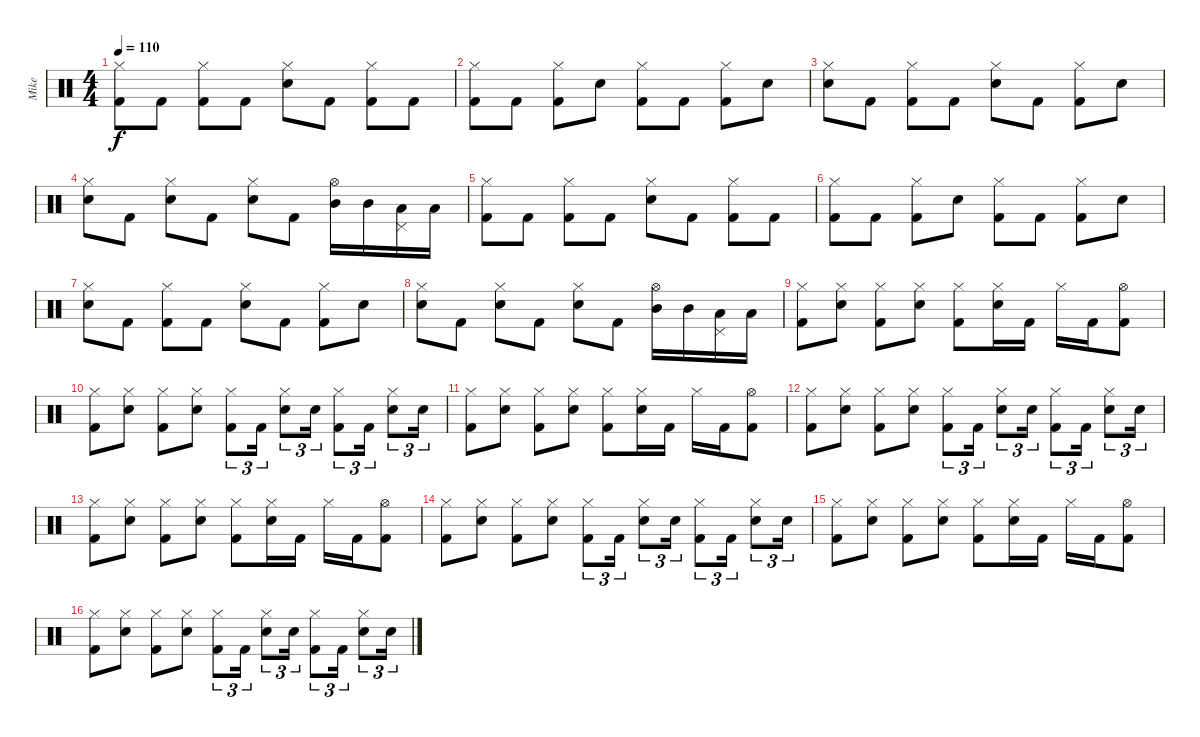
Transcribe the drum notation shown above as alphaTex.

\track ("Mike" "Mike") {instrument percussion}
\staff {score}
\articulation defaults
\ts (4 4)
\tempo 110
\clef neutral
\ks c
("Hi-Hat (closed)" "Kick (hit) 2").8{dy f} "Kick (hit) 2".8 ("Hi-Hat (closed)" "Kick (hit) 2").8 "Kick (hit) 2".8 ("Hi-Hat (closed)" "Electric Snare (hit)").8 "Kick (hit) 2".8 ("Hi-Hat (closed)" "Kick (hit) 2").8 "Kick (hit) 2".8 |
("Hi-Hat (closed)" "Kick (hit) 2").8 "Kick (hit) 2".8 ("Hi-Hat (closed)" "Kick (hit) 2").8 "Electric Snare (hit)".8 ("Hi-Hat (closed)" "Kick (hit) 2").8 "Kick (hit) 2".8 ("Hi-Hat (closed)" "Kick (hit) 2").8 "Electric Snare (hit)".8 |
("Hi-Hat (closed)" "Electric Snare (hit)").8 "Kick (hit) 2".8 ("Hi-Hat (closed)" "Kick (hit) 2").8 "Kick (hit) 2".8 ("Hi-Hat (closed)" "Electric Snare (hit)").8 "Kick (hit) 2".8 ("Hi-Hat (closed)" "Kick (hit) 2").8 "Electric Snare (hit)".8 |
("Hi-Hat (closed)" "Electric Snare (hit)").8 "Kick (hit) 2".8 ("Hi-Hat (closed)" "Electric Snare (hit)").8 "Kick (hit) 2".8 ("Hi-Hat (closed)" "Electric Snare (hit)").8 "Kick (hit) 2".8 ("Hi-Hat (open)" "Mid Tom (hit)").16 "Mid Tom (hit)".16 ("Pedal Hi-Hat (hit)" "Low Tom (hit)").16 "Low Tom (hit)".16 |
("Hi-Hat (closed)" "Kick (hit) 2").8 "Kick (hit) 2".8 ("Hi-Hat (closed)" "Kick (hit) 2").8 "Kick (hit) 2".8 ("Hi-Hat (closed)" "Electric Snare (hit)").8 "Kick (hit) 2".8 ("Hi-Hat (closed)" "Kick (hit) 2").8 "Kick (hit) 2".8 |
("Hi-Hat (closed)" "Kick (hit) 2").8 "Kick (hit) 2".8 ("Hi-Hat (closed)" "Kick (hit) 2").8 "Electric Snare (hit)".8 ("Hi-Hat (closed)" "Kick (hit) 2").8 "Kick (hit) 2".8 ("Hi-Hat (closed)" "Kick (hit) 2").8 "Electric Snare (hit)".8 |
("Hi-Hat (closed)" "Electric Snare (hit)").8 "Kick (hit) 2".8 ("Hi-Hat (closed)" "Kick (hit) 2").8 "Kick (hit) 2".8 ("Hi-Hat (closed)" "Electric Snare (hit)").8 "Kick (hit) 2".8 ("Hi-Hat (closed)" "Kick (hit) 2").8 "Electric Snare (hit)".8 |
("Hi-Hat (closed)" "Electric Snare (hit)").8 "Kick (hit) 2".8 ("Hi-Hat (closed)" "Electric Snare (hit)").8 "Kick (hit) 2".8 ("Hi-Hat (closed)" "Electric Snare (hit)").8 "Kick (hit) 2".8 ("Hi-Hat (open)" "Mid Tom (hit)").16 "Mid Tom (hit)".16 ("Pedal Hi-Hat (hit)" "Low Tom (hit)").16 "Low Tom (hit)".16 |
("Hi-Hat (closed)" "Kick (hit) 2").8 ("Hi-Hat (closed)" "Electric Snare (hit)").8 ("Hi-Hat (closed)" "Kick (hit) 2").8 ("Hi-Hat (closed)" "Electric Snare (hit)").8 ("Hi-Hat (closed)" "Kick (hit) 2").8 ("Hi-Hat (closed)" "Electric Snare (hit)").16 "Kick (hit) 2".16 "Hi-Hat (closed)".16 "Kick (hit) 2".16 ("Hi-Hat (open)" "Kick (hit) 2").8 |
("Hi-Hat (closed)" "Kick (hit) 2").8 ("Hi-Hat (closed)" "Electric Snare (hit)").8 ("Hi-Hat (closed)" "Kick (hit) 2").8 ("Hi-Hat (closed)" "Electric Snare (hit)").8 ("Hi-Hat (closed)" "Kick (hit) 2").8{tu (3 2)} "Kick (hit) 2".16{tu (3 2)} ("Hi-Hat (closed)" "Electric Snare (hit)").8{tu (3 2)} "Electric Snare (hit)".16{tu (3 2)} ("Hi-Hat (closed)" "Kick (hit) 2").8{tu (3 2)} "Kick (hit) 2".16{tu (3 2)} ("Hi-Hat (closed)" "Electric Snare (hit)").8{tu (3 2)} "Electric Snare (hit)".16{tu (3 2)} |
("Hi-Hat (closed)" "Kick (hit) 2").8 ("Hi-Hat (closed)" "Electric Snare (hit)").8 ("Hi-Hat (closed)" "Kick (hit) 2").8 ("Hi-Hat (closed)" "Electric Snare (hit)").8 ("Hi-Hat (closed)" "Kick (hit) 2").8 ("Hi-Hat (closed)" "Electric Snare (hit)").16 "Kick (hit) 2".16 "Hi-Hat (closed)".16 "Kick (hit) 2".16 ("Hi-Hat (open)" "Kick (hit) 2").8 |
("Hi-Hat (closed)" "Kick (hit) 2").8 ("Hi-Hat (closed)" "Electric Snare (hit)").8 ("Hi-Hat (closed)" "Kick (hit) 2").8 ("Hi-Hat (closed)" "Electric Snare (hit)").8 ("Hi-Hat (closed)" "Kick (hit) 2").8{tu (3 2)} "Kick (hit) 2".16{tu (3 2)} ("Hi-Hat (closed)" "Electric Snare (hit)").8{tu (3 2)} "Electric Snare (hit)".16{tu (3 2)} ("Hi-Hat (closed)" "Kick (hit) 2").8{tu (3 2)} "Kick (hit) 2".16{tu (3 2)} ("Hi-Hat (closed)" "Electric Snare (hit)").8{tu (3 2)} "Electric Snare (hit)".16{tu (3 2)} |
("Hi-Hat (closed)" "Kick (hit) 2").8 ("Hi-Hat (closed)" "Electric Snare (hit)").8 ("Hi-Hat (closed)" "Kick (hit) 2").8 ("Hi-Hat (closed)" "Electric Snare (hit)").8 ("Hi-Hat (closed)" "Kick (hit) 2").8 ("Hi-Hat (closed)" "Electric Snare (hit)").16 "Kick (hit) 2".16 "Hi-Hat (closed)".16 "Kick (hit) 2".16 ("Hi-Hat (open)" "Kick (hit) 2").8 |
("Hi-Hat (closed)" "Kick (hit) 2").8 ("Hi-Hat (closed)" "Electric Snare (hit)").8 ("Hi-Hat (closed)" "Kick (hit) 2").8 ("Hi-Hat (closed)" "Electric Snare (hit)").8 ("Hi-Hat (closed)" "Kick (hit) 2").8{tu (3 2)} "Kick (hit) 2".16{tu (3 2)} ("Hi-Hat (closed)" "Electric Snare (hit)").8{tu (3 2)} "Electric Snare (hit)".16{tu (3 2)} ("Hi-Hat (closed)" "Kick (hit) 2").8{tu (3 2)} "Kick (hit) 2".16{tu (3 2)} ("Hi-Hat (closed)" "Electric Snare (hit)").8{tu (3 2)} "Electric Snare (hit)".16{tu (3 2)} |
("Hi-Hat (closed)" "Kick (hit) 2").8 ("Hi-Hat (closed)" "Electric Snare (hit)").8 ("Hi-Hat (closed)" "Kick (hit) 2").8 ("Hi-Hat (closed)" "Electric Snare (hit)").8 ("Hi-Hat (closed)" "Kick (hit) 2").8 ("Hi-Hat (closed)" "Electric Snare (hit)").16 "Kick (hit) 2".16 "Hi-Hat (closed)".16 "Kick (hit) 2".16 ("Hi-Hat (open)" "Kick (hit) 2").8 |
("Hi-Hat (closed)" "Kick (hit) 2").8 ("Hi-Hat (closed)" "Electric Snare (hit)").8 ("Hi-Hat (closed)" "Kick (hit) 2").8 ("Hi-Hat (closed)" "Electric Snare (hit)").8 ("Hi-Hat (closed)" "Kick (hit) 2").8{tu (3 2)} "Kick (hit) 2".16{tu (3 2)} ("Hi-Hat (closed)" "Electric Snare (hit)").8{tu (3 2)} "Electric Snare (hit)".16{tu (3 2)} ("Hi-Hat (closed)" "Kick (hit) 2").8{tu (3 2)} "Kick (hit) 2".16{tu (3 2)} ("Hi-Hat (closed)" "Electric Snare (hit)").8{tu (3 2)} "Electric Snare (hit)".16{tu (3 2)}
